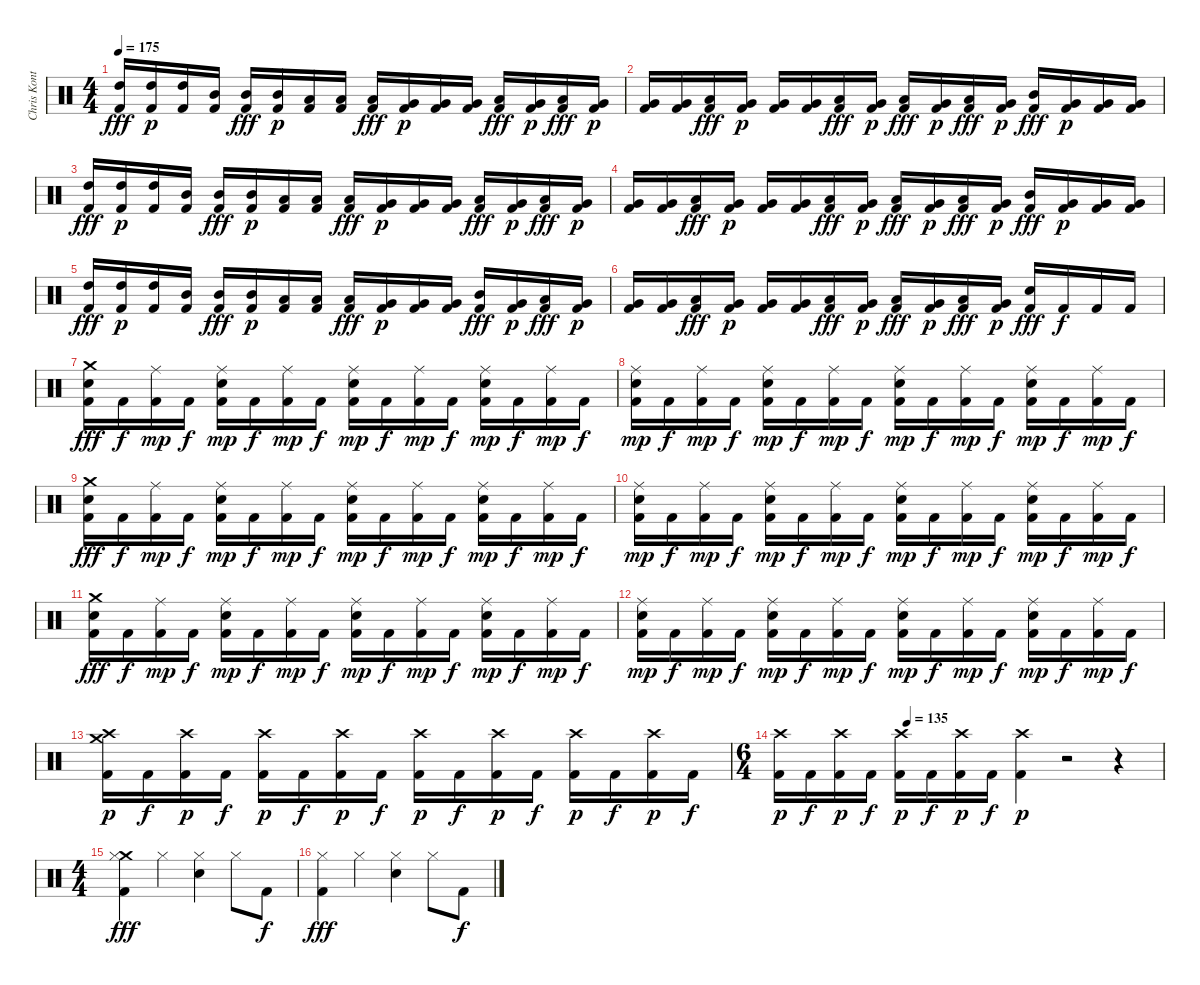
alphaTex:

\track ("Chris Kontos" "Chris Kont") {instrument percussion}
\staff {score}
\articulation defaults
\ts (4 4)
\tempo 175
\clef neutral
\ks c
("High Tom (hit)" "Kick (hit) 2").16{dy fff} ("High Tom (hit)" "Kick (hit) 2").16{dy p} ("High Tom (hit)" "Kick (hit) 2").16 ("Mid Tom (hit)" "Kick (hit) 2").16 ("Mid Tom (hit)" "Kick (hit) 2").16{dy fff} ("Mid Tom (hit)" "Kick (hit) 2").16{dy p} ("Low Tom (hit)" "Kick (hit) 2").16 ("Low Tom (hit)" "Kick (hit) 2").16 ("Low Tom (hit)" "Kick (hit) 2").16{dy fff} ("Very Low Tom (hit)" "Kick (hit) 2").16{dy p} ("Very Low Tom (hit)" "Kick (hit) 2").16 ("Very Low Tom (hit)" "Kick (hit) 2").16 ("Low Tom (hit)" "Kick (hit) 2").16{dy fff} ("Very Low Tom (hit)" "Kick (hit) 2").16{dy p} ("Low Tom (hit)" "Kick (hit) 2").16{dy fff} ("Very Low Tom (hit)" "Kick (hit) 2").16{dy p} |
("Very Low Tom (hit)" "Kick (hit) 2").16 ("Very Low Tom (hit)" "Kick (hit) 2").16 ("Low Tom (hit)" "Kick (hit) 2").16{dy fff} ("Very Low Tom (hit)" "Kick (hit) 2").16{dy p} ("Very Low Tom (hit)" "Kick (hit) 2").16 ("Very Low Tom (hit)" "Kick (hit) 2").16 ("Low Tom (hit)" "Kick (hit) 2").16{dy fff} ("Very Low Tom (hit)" "Kick (hit) 2").16{dy p} ("Low Tom (hit)" "Kick (hit) 2").16{dy fff} ("Very Low Tom (hit)" "Kick (hit) 2").16{dy p} ("Low Tom (hit)" "Kick (hit) 2").16{dy fff} ("Very Low Tom (hit)" "Kick (hit) 2").16{dy p} ("Mid Tom (hit)" "Kick (hit) 2").16{dy fff} ("Very Low Tom (hit)" "Kick (hit) 2").16{dy p} ("Very Low Tom (hit)" "Kick (hit) 2").16 ("Very Low Tom (hit)" "Kick (hit) 2").16 |
("High Tom (hit)" "Kick (hit) 2").16{dy fff} ("High Tom (hit)" "Kick (hit) 2").16{dy p} ("High Tom (hit)" "Kick (hit) 2").16 ("Mid Tom (hit)" "Kick (hit) 2").16 ("Mid Tom (hit)" "Kick (hit) 2").16{dy fff} ("Mid Tom (hit)" "Kick (hit) 2").16{dy p} ("Low Tom (hit)" "Kick (hit) 2").16 ("Low Tom (hit)" "Kick (hit) 2").16 ("Low Tom (hit)" "Kick (hit) 2").16{dy fff} ("Very Low Tom (hit)" "Kick (hit) 2").16{dy p} ("Very Low Tom (hit)" "Kick (hit) 2").16 ("Very Low Tom (hit)" "Kick (hit) 2").16 ("Low Tom (hit)" "Kick (hit) 2").16{dy fff} ("Very Low Tom (hit)" "Kick (hit) 2").16{dy p} ("Low Tom (hit)" "Kick (hit) 2").16{dy fff} ("Very Low Tom (hit)" "Kick (hit) 2").16{dy p} |
("Very Low Tom (hit)" "Kick (hit) 2").16 ("Very Low Tom (hit)" "Kick (hit) 2").16 ("Low Tom (hit)" "Kick (hit) 2").16{dy fff} ("Very Low Tom (hit)" "Kick (hit) 2").16{dy p} ("Very Low Tom (hit)" "Kick (hit) 2").16 ("Very Low Tom (hit)" "Kick (hit) 2").16 ("Low Tom (hit)" "Kick (hit) 2").16{dy fff} ("Very Low Tom (hit)" "Kick (hit) 2").16{dy p} ("Low Tom (hit)" "Kick (hit) 2").16{dy fff} ("Very Low Tom (hit)" "Kick (hit) 2").16{dy p} ("Low Tom (hit)" "Kick (hit) 2").16{dy fff} ("Very Low Tom (hit)" "Kick (hit) 2").16{dy p} ("Mid Tom (hit)" "Kick (hit) 2").16{dy fff} ("Very Low Tom (hit)" "Kick (hit) 2").16{dy p} ("Very Low Tom (hit)" "Kick (hit) 2").16 ("Very Low Tom (hit)" "Kick (hit) 2").16 |
("High Tom (hit)" "Kick (hit) 2").16{dy fff} ("High Tom (hit)" "Kick (hit) 2").16{dy p} ("High Tom (hit)" "Kick (hit) 2").16 ("Mid Tom (hit)" "Kick (hit) 2").16 ("Mid Tom (hit)" "Kick (hit) 2").16{dy fff} ("Mid Tom (hit)" "Kick (hit) 2").16{dy p} ("Low Tom (hit)" "Kick (hit) 2").16 ("Low Tom (hit)" "Kick (hit) 2").16 ("Low Tom (hit)" "Kick (hit) 2").16{dy fff} ("Very Low Tom (hit)" "Kick (hit) 2").16{dy p} ("Very Low Tom (hit)" "Kick (hit) 2").16 ("Very Low Tom (hit)" "Kick (hit) 2").16 ("Mid Tom (hit)" "Kick (hit) 2").16{dy fff} ("Very Low Tom (hit)" "Kick (hit) 2").16{dy p} ("Low Tom (hit)" "Kick (hit) 2").16{dy fff} ("Very Low Tom (hit)" "Kick (hit) 2").16{dy p} |
("Very Low Tom (hit)" "Kick (hit) 2").16 ("Very Low Tom (hit)" "Kick (hit) 2").16 ("Low Tom (hit)" "Kick (hit) 2").16{dy fff} ("Very Low Tom (hit)" "Kick (hit) 2").16{dy p} ("Very Low Tom (hit)" "Kick (hit) 2").16 ("Very Low Tom (hit)" "Kick (hit) 2").16 ("Low Tom (hit)" "Kick (hit) 2").16{dy fff} ("Very Low Tom (hit)" "Kick (hit) 2").16{dy p} ("Low Tom (hit)" "Kick (hit) 2").16{dy fff} ("Very Low Tom (hit)" "Kick (hit) 2").16{dy p} ("Low Tom (hit)" "Kick (hit) 2").16{dy fff} ("Very Low Tom (hit)" "Kick (hit) 2").16{dy p} ("Electric Snare (hit)" "Kick (hit) 2").16{dy fff} "Kick (hit) 2".16{dy f} "Kick (hit) 2".16 "Kick (hit) 2".16 |
("Crash medium (hit)" "Electric Snare (hit)" "Kick (hit) 2").16{dy fff} "Kick (hit) 2".16{dy f} ("Ride (middle)" "Kick (hit) 2").16{dy mp} "Kick (hit) 2".16{dy f} ("Electric Snare (hit)" "Ride (middle)" "Kick (hit) 2").16{dy mp} "Kick (hit) 2".16{dy f} ("Ride (middle)" "Kick (hit) 2").16{dy mp} "Kick (hit) 2".16{dy f} ("Electric Snare (hit)" "Ride (middle)" "Kick (hit) 2").16{dy mp} "Kick (hit) 2".16{dy f} ("Ride (middle)" "Kick (hit) 2").16{dy mp} "Kick (hit) 2".16{dy f} ("Electric Snare (hit)" "Ride (middle)" "Kick (hit) 2").16{dy mp} "Kick (hit) 2".16{dy f} ("Ride (middle)" "Kick (hit) 2").16{dy mp} "Kick (hit) 2".16{dy f} |
("Electric Snare (hit)" "Ride (middle)" "Kick (hit) 2").16{dy mp} "Kick (hit) 2".16{dy f} ("Ride (middle)" "Kick (hit) 2").16{dy mp} "Kick (hit) 2".16{dy f} ("Electric Snare (hit)" "Ride (middle)" "Kick (hit) 2").16{dy mp} "Kick (hit) 2".16{dy f} ("Ride (middle)" "Kick (hit) 2").16{dy mp} "Kick (hit) 2".16{dy f} ("Electric Snare (hit)" "Ride (middle)" "Kick (hit) 2").16{dy mp} "Kick (hit) 2".16{dy f} ("Ride (middle)" "Kick (hit) 2").16{dy mp} "Kick (hit) 2".16{dy f} ("Electric Snare (hit)" "Ride (middle)" "Kick (hit) 2").16{dy mp} "Kick (hit) 2".16{dy f} ("Ride (middle)" "Kick (hit) 2").16{dy mp} "Kick (hit) 2".16{dy f} |
("Crash medium (hit)" "Electric Snare (hit)" "Kick (hit) 2").16{dy fff} "Kick (hit) 2".16{dy f} ("Ride (middle)" "Kick (hit) 2").16{dy mp} "Kick (hit) 2".16{dy f} ("Electric Snare (hit)" "Ride (middle)" "Kick (hit) 2").16{dy mp} "Kick (hit) 2".16{dy f} ("Ride (middle)" "Kick (hit) 2").16{dy mp} "Kick (hit) 2".16{dy f} ("Electric Snare (hit)" "Ride (middle)" "Kick (hit) 2").16{dy mp} "Kick (hit) 2".16{dy f} ("Ride (middle)" "Kick (hit) 2").16{dy mp} "Kick (hit) 2".16{dy f} ("Electric Snare (hit)" "Ride (middle)" "Kick (hit) 2").16{dy mp} "Kick (hit) 2".16{dy f} ("Ride (middle)" "Kick (hit) 2").16{dy mp} "Kick (hit) 2".16{dy f} |
("Electric Snare (hit)" "Ride (middle)" "Kick (hit) 2").16{dy mp} "Kick (hit) 2".16{dy f} ("Ride (middle)" "Kick (hit) 2").16{dy mp} "Kick (hit) 2".16{dy f} ("Electric Snare (hit)" "Ride (middle)" "Kick (hit) 2").16{dy mp} "Kick (hit) 2".16{dy f} ("Ride (middle)" "Kick (hit) 2").16{dy mp} "Kick (hit) 2".16{dy f} ("Electric Snare (hit)" "Ride (middle)" "Kick (hit) 2").16{dy mp} "Kick (hit) 2".16{dy f} ("Ride (middle)" "Kick (hit) 2").16{dy mp} "Kick (hit) 2".16{dy f} ("Electric Snare (hit)" "Ride (middle)" "Kick (hit) 2").16{dy mp} "Kick (hit) 2".16{dy f} ("Ride (middle)" "Kick (hit) 2").16{dy mp} "Kick (hit) 2".16{dy f} |
("Crash medium (hit)" "Electric Snare (hit)" "Kick (hit) 2").16{dy fff} "Kick (hit) 2".16{dy f} ("Ride (middle)" "Kick (hit) 2").16{dy mp} "Kick (hit) 2".16{dy f} ("Electric Snare (hit)" "Ride (middle)" "Kick (hit) 2").16{dy mp} "Kick (hit) 2".16{dy f} ("Ride (middle)" "Kick (hit) 2").16{dy mp} "Kick (hit) 2".16{dy f} ("Electric Snare (hit)" "Ride (middle)" "Kick (hit) 2").16{dy mp} "Kick (hit) 2".16{dy f} ("Ride (middle)" "Kick (hit) 2").16{dy mp} "Kick (hit) 2".16{dy f} ("Electric Snare (hit)" "Ride (middle)" "Kick (hit) 2").16{dy mp} "Kick (hit) 2".16{dy f} ("Ride (middle)" "Kick (hit) 2").16{dy mp} "Kick (hit) 2".16{dy f} |
("Electric Snare (hit)" "Ride (middle)" "Kick (hit) 2").16{dy mp} "Kick (hit) 2".16{dy f} ("Ride (middle)" "Kick (hit) 2").16{dy mp} "Kick (hit) 2".16{dy f} ("Electric Snare (hit)" "Ride (middle)" "Kick (hit) 2").16{dy mp} "Kick (hit) 2".16{dy f} ("Ride (middle)" "Kick (hit) 2").16{dy mp} "Kick (hit) 2".16{dy f} ("Electric Snare (hit)" "Ride (middle)" "Kick (hit) 2").16{dy mp} "Kick (hit) 2".16{dy f} ("Ride (middle)" "Kick (hit) 2").16{dy mp} "Kick (hit) 2".16{dy f} ("Electric Snare (hit)" "Ride (middle)" "Kick (hit) 2").16{dy mp} "Kick (hit) 2".16{dy f} ("Ride (middle)" "Kick (hit) 2").16{dy mp} "Kick (hit) 2".16{dy f} |
("Crash medium (hit)" "Crash high (hit)" "Kick (hit) 2").16{dy p} "Kick (hit) 2".16{dy f} ("Crash high (hit)" "Kick (hit) 2").16{dy p} "Kick (hit) 2".16{dy f} ("Crash high (hit)" "Kick (hit) 2").16{dy p} "Kick (hit) 2".16{dy f} ("Crash high (hit)" "Kick (hit) 2").16{dy p} "Kick (hit) 2".16{dy f} ("Crash high (hit)" "Kick (hit) 2").16{dy p} "Kick (hit) 2".16{dy f} ("Crash high (hit)" "Kick (hit) 2").16{dy p} "Kick (hit) 2".16{dy f} ("Crash high (hit)" "Kick (hit) 2").16{dy p} "Kick (hit) 2".16{dy f} ("Crash high (hit)" "Kick (hit) 2").16{dy p} "Kick (hit) 2".16{dy f} |
\ts (6 4)
\tempo (135 0.3333333333333333)
("Crash high (hit)" "Kick (hit) 2").16{dy p} "Kick (hit) 2".16{dy f} ("Crash high (hit)" "Kick (hit) 2").16{dy p} "Kick (hit) 2".16{dy f} ("Crash high (hit)" "Kick (hit) 2").16{dy p} "Kick (hit) 2".16{dy f} ("Crash high (hit)" "Kick (hit) 2").16{dy p} "Kick (hit) 2".16{dy f} ("Crash high (hit)" "Kick (hit) 2").4{dy p} r.2 r.4 |
\ts (4 4)
("Crash medium (hit)" "Hi-Hat (closed)" "Kick (hit) 2").4{dy fff} "Hi-Hat (closed)".4 ("Electric Snare (hit)" "Hi-Hat (closed)").4 "Hi-Hat (closed)".8 "Kick (hit) 2".8{dy f} |
("Hi-Hat (closed)" "Kick (hit) 2").4{dy fff} "Hi-Hat (closed)".4 ("Electric Snare (hit)" "Hi-Hat (closed)").4 "Hi-Hat (closed)".8 "Kick (hit) 2".8{dy f}
